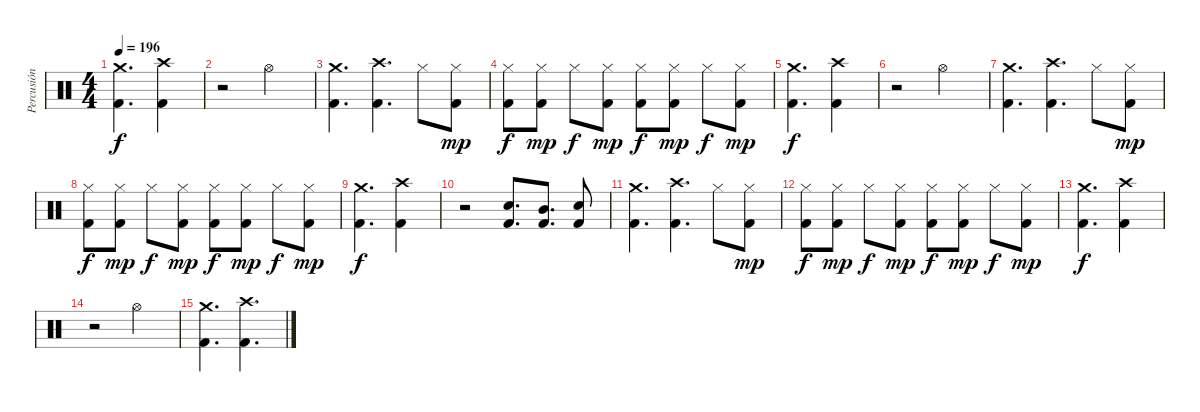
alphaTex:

\track ("Percusión" "Percusión") {instrument percussion}
\staff {score}
\articulation defaults
\ts (4 4)
\tempo 196
\clef neutral
\ks c
("Crash medium (hit)" "Kick (hit) 2").4{d dy f} ("Crash high (hit)" "Kick (hit) 2").4 |
r.2 "Hi-Hat (open)".2 |
("Crash medium (hit)" "Kick (hit) 2").4{d} ("Crash high (hit)" "Kick (hit) 2").4{d} "Hi-Hat (closed)".8 ("Hi-Hat (closed)" "Kick (hit) 2").8{dy mp} |
("Hi-Hat (closed)" "Kick (hit) 2").8{dy f} ("Hi-Hat (closed)" "Kick (hit) 2").8{dy mp} "Hi-Hat (closed)".8{dy f} ("Hi-Hat (closed)" "Kick (hit) 2").8{dy mp} ("Hi-Hat (closed)" "Kick (hit) 2").8{dy f} ("Hi-Hat (closed)" "Kick (hit) 2").8{dy mp} "Hi-Hat (closed)".8{dy f} ("Hi-Hat (closed)" "Kick (hit) 2").8{dy mp} |
("Crash medium (hit)" "Kick (hit) 2").4{d dy f} ("Crash high (hit)" "Kick (hit) 2").4 |
r.2 "Hi-Hat (open)".2 |
("Crash medium (hit)" "Kick (hit) 2").4{d} ("Crash high (hit)" "Kick (hit) 2").4{d} "Hi-Hat (closed)".8 ("Hi-Hat (closed)" "Kick (hit) 2").8{dy mp} |
("Hi-Hat (closed)" "Kick (hit) 2").8{dy f} ("Hi-Hat (closed)" "Kick (hit) 2").8{dy mp} "Hi-Hat (closed)".8{dy f} ("Hi-Hat (closed)" "Kick (hit) 2").8{dy mp} ("Hi-Hat (closed)" "Kick (hit) 2").8{dy f} ("Hi-Hat (closed)" "Kick (hit) 2").8{dy mp} "Hi-Hat (closed)".8{dy f} ("Hi-Hat (closed)" "Kick (hit) 2").8{dy mp} |
("Crash medium (hit)" "Kick (hit) 2").4{d dy f} ("Crash high (hit)" "Kick (hit) 2").4 |
r.2 ("Electric Snare (hit)" "Kick (hit) 2").8{d} ("Mid Tom (hit)" "Kick (hit) 2").8{d} ("Electric Snare (hit)" "Kick (hit) 2").8 |
("Crash medium (hit)" "Kick (hit) 2").4{d} ("Crash high (hit)" "Kick (hit) 2").4{d} "Hi-Hat (closed)".8 ("Hi-Hat (closed)" "Kick (hit) 2").8{dy mp} |
("Hi-Hat (closed)" "Kick (hit) 2").8{dy f} ("Hi-Hat (closed)" "Kick (hit) 2").8{dy mp} "Hi-Hat (closed)".8{dy f} ("Hi-Hat (closed)" "Kick (hit) 2").8{dy mp} ("Hi-Hat (closed)" "Kick (hit) 2").8{dy f} ("Hi-Hat (closed)" "Kick (hit) 2").8{dy mp} "Hi-Hat (closed)".8{dy f} ("Hi-Hat (closed)" "Kick (hit) 2").8{dy mp} |
("Crash medium (hit)" "Kick (hit) 2").4{d dy f} ("Crash high (hit)" "Kick (hit) 2").4 |
r.2 "Hi-Hat (open)".2 |
("Crash medium (hit)" "Kick (hit) 2").4{d} ("Crash high (hit)" "Kick (hit) 2").4{d}
